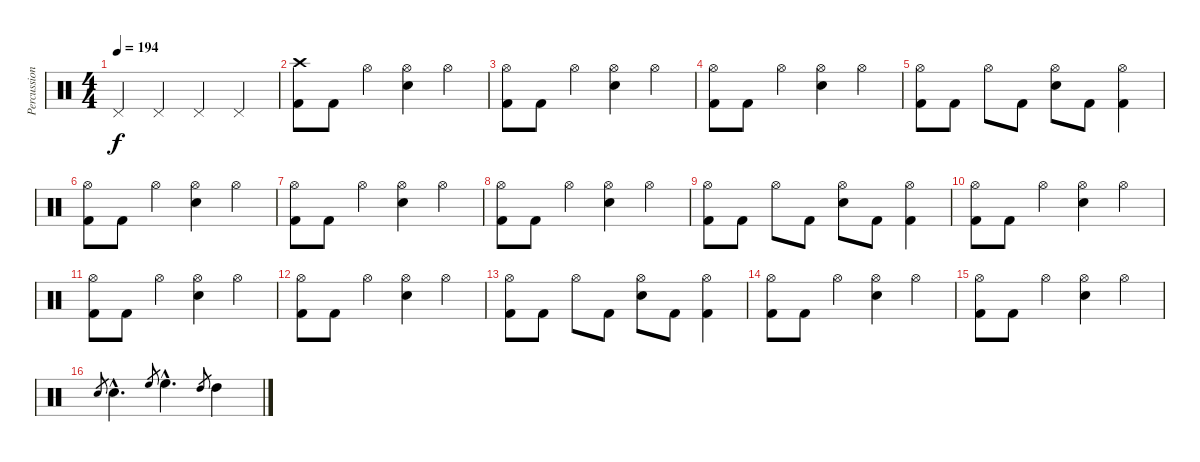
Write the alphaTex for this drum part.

\track ("Percussion" "Percussion") {instrument percussion}
\staff {score}
\articulation defaults
\ts (4 4)
\tempo 194
\clef neutral
\ks c "Pedal Hi-Hat (hit)".4{dy f} "Pedal Hi-Hat (hit)".4 "Pedal Hi-Hat (hit)".4 "Pedal Hi-Hat (hit)".4
|
("Crash high (hit)" "Kick (hit) 2").8 "Kick (hit) 2".8 "Hi-Hat (open)".4 ("Hi-Hat (open)" "Electric Snare (hit)").4 "Hi-Hat (open)".4 |
("Hi-Hat (open)" "Kick (hit) 2").8 "Kick (hit) 2".8 "Hi-Hat (open)".4 ("Hi-Hat (open)" "Electric Snare (hit)").4 "Hi-Hat (open)".4 |
("Hi-Hat (open)" "Kick (hit) 2").8 "Kick (hit) 2".8 "Hi-Hat (open)".4 ("Hi-Hat (open)" "Electric Snare (hit)").4 "Hi-Hat (open)".4 |
("Hi-Hat (open)" "Kick (hit) 2").8 "Kick (hit) 2".8 "Hi-Hat (open)".8 "Kick (hit) 2".8 ("Hi-Hat (open)" "Electric Snare (hit)").8 "Kick (hit) 2".8 ("Hi-Hat (open)" "Kick (hit) 2").4 |
("Hi-Hat (open)" "Kick (hit) 2").8 "Kick (hit) 2".8 "Hi-Hat (open)".4 ("Hi-Hat (open)" "Electric Snare (hit)").4 "Hi-Hat (open)".4 |
("Hi-Hat (open)" "Kick (hit) 2").8 "Kick (hit) 2".8 "Hi-Hat (open)".4 ("Hi-Hat (open)" "Electric Snare (hit)").4 "Hi-Hat (open)".4 |
("Hi-Hat (open)" "Kick (hit) 2").8 "Kick (hit) 2".8 "Hi-Hat (open)".4 ("Hi-Hat (open)" "Electric Snare (hit)").4 "Hi-Hat (open)".4 |
("Hi-Hat (open)" "Kick (hit) 2").8 "Kick (hit) 2".8 "Hi-Hat (open)".8 "Kick (hit) 2".8 ("Hi-Hat (open)" "Electric Snare (hit)").8 "Kick (hit) 2".8 ("Hi-Hat (open)" "Kick (hit) 2").4 |
("Hi-Hat (open)" "Kick (hit) 2").8 "Kick (hit) 2".8 "Hi-Hat (open)".4 ("Hi-Hat (open)" "Electric Snare (hit)").4 "Hi-Hat (open)".4 |
("Hi-Hat (open)" "Kick (hit) 2").8 "Kick (hit) 2".8 "Hi-Hat (open)".4 ("Hi-Hat (open)" "Electric Snare (hit)").4 "Hi-Hat (open)".4 |
("Hi-Hat (open)" "Kick (hit) 2").8 "Kick (hit) 2".8 "Hi-Hat (open)".4 ("Hi-Hat (open)" "Electric Snare (hit)").4 "Hi-Hat (open)".4 |
("Hi-Hat (open)" "Kick (hit) 2").8 "Kick (hit) 2".8 "Hi-Hat (open)".8 "Kick (hit) 2".8 ("Hi-Hat (open)" "Electric Snare (hit)").8 "Kick (hit) 2".8 ("Hi-Hat (open)" "Kick (hit) 2").4 |
("Hi-Hat (open)" "Kick (hit) 2").8 "Kick (hit) 2".8 "Hi-Hat (open)".4 ("Hi-Hat (open)" "Electric Snare (hit)").4 "Hi-Hat (open)".4 |
("Hi-Hat (open)" "Kick (hit) 2").8 "Kick (hit) 2".8 "Hi-Hat (open)".4 ("Hi-Hat (open)" "Electric Snare (hit)").4 "Hi-Hat (open)".4 |
"Electric Snare (hit)".8{gr} "Electric Snare (hit)"{hac}.4{d} "High Floor Tom (hit)".8{gr} "High Floor Tom (hit)"{hac}.4{d} "High Tom (hit)".8{gr} "High Tom (hit)".4
